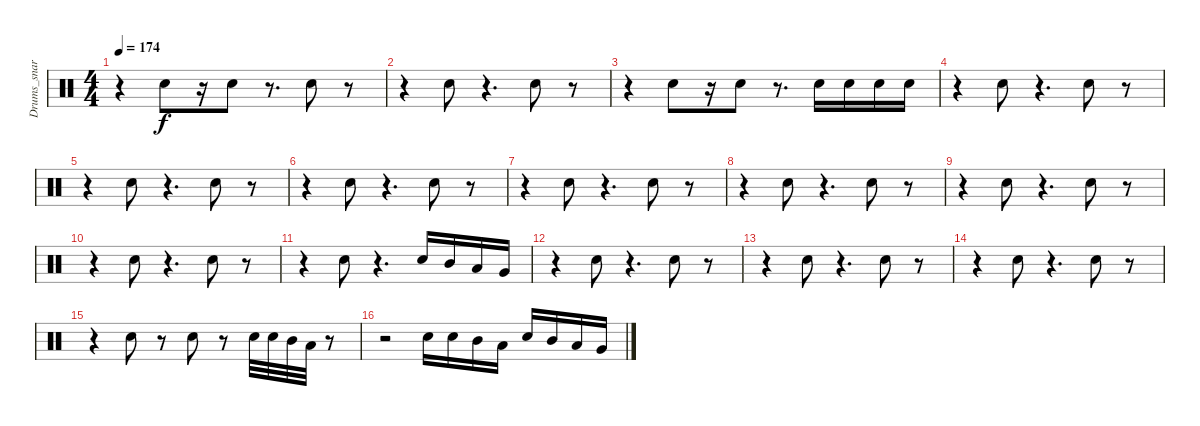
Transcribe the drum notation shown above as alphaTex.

\track ("Drums_snare&tom" "Drums_snar") {instrument percussion}
\staff {score}
\articulation defaults
\ts (4 4)
\tempo 174
\clef neutral
\ks c
r.4{dy f} "Electric Snare (hit)".8 r.16 "Electric Snare (hit)".8 r.8{d} "Electric Snare (hit)".8 r.8 |
r.4 "Electric Snare (hit)".8 r.4{d} "Electric Snare (hit)".8 r.8 |
r.4 "Electric Snare (hit)".8 r.16 "Electric Snare (hit)".8 r.8{d} "Electric Snare (hit)".16 "Electric Snare (hit)".16 "Electric Snare (hit)".16 "Electric Snare (hit)".16 |
r.4 "Electric Snare (hit)".8 r.4{d} "Electric Snare (hit)".8 r.8 |
r.4 "Electric Snare (hit)".8 r.4{d} "Electric Snare (hit)".8 r.8 |
r.4 "Electric Snare (hit)".8 r.4{d} "Electric Snare (hit)".8 r.8 |
r.4 "Electric Snare (hit)".8 r.4{d} "Electric Snare (hit)".8 r.8 |
r.4 "Electric Snare (hit)".8 r.4{d} "Electric Snare (hit)".8 r.8 |
r.4 "Electric Snare (hit)".8 r.4{d} "Electric Snare (hit)".8 r.8 |
r.4 "Electric Snare (hit)".8 r.4{d} "Electric Snare (hit)".8 r.8 |
r.4 "Electric Snare (hit)".8 r.4{d} "Electric Snare (hit)".16 "Mid Tom (hit)".16 "Low Tom (hit)".16 "Very Low Tom (hit)".16 |
r.4 "Electric Snare (hit)".8 r.4{d} "Electric Snare (hit)".8 r.8 |
r.4 "Electric Snare (hit)".8 r.4{d} "Electric Snare (hit)".8 r.8 |
r.4 "Electric Snare (hit)".8 r.4{d} "Electric Snare (hit)".8 r.8 |
r.4 "Electric Snare (hit)".8 r.8 "Electric Snare (hit)".8 r.8 "Electric Snare (hit)".32 "Electric Snare (hit)".32 "Mid Tom (hit)".32 "Low Tom (hit)".32 r.8 |
r.2 "Electric Snare (hit)".16 "Electric Snare (hit)".16 "Mid Tom (hit)".16 "Low Tom (hit)".16 "Electric Snare (hit)".16 "Mid Tom (hit)".16 "Low Tom (hit)".16 "Very Low Tom (hit)".16
